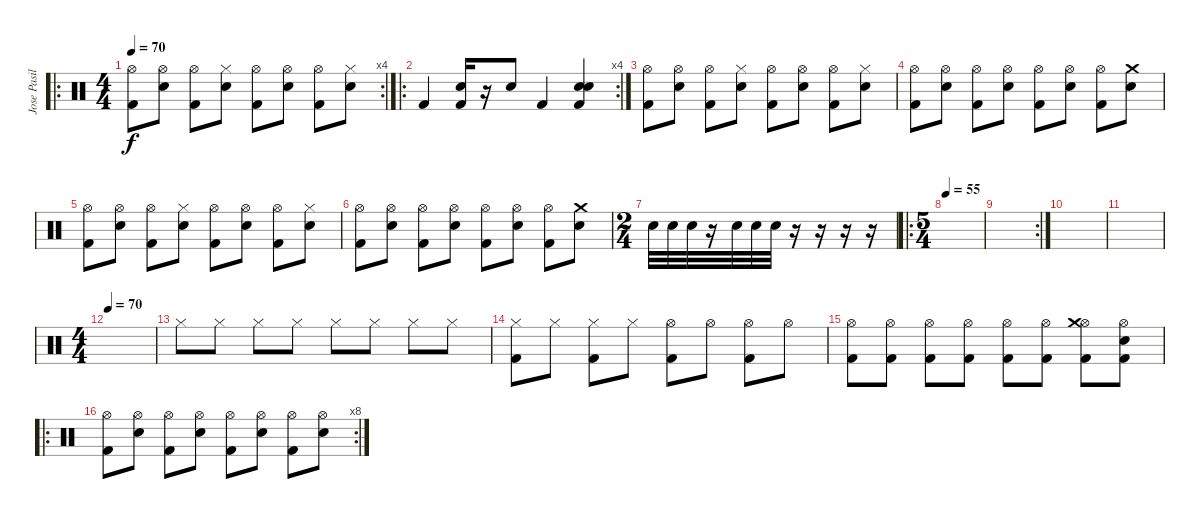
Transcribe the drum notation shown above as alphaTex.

\track ("Jose Pasillas" "Jose Pasil") {instrument percussion}
\staff {score}
\articulation defaults
\ro
\rc 4
\ts (4 4)
\tempo 70
\clef neutral
\ks c
("Hi-Hat (open)" "Kick (hit) 2").8{dy f} ("Hi-Hat (open)" "Snare (hit) 2").8 ("Hi-Hat (open)" "Kick (hit) 2").8 ("Hi-Hat (closed)" "Snare (hit) 2").8 ("Hi-Hat (open)" "Kick (hit) 2").8 ("Hi-Hat (open)" "Snare (hit) 2").8 ("Hi-Hat (open)" "Kick (hit) 2").8 ("Hi-Hat (closed)" "Snare (hit) 2").8 |
\ro
\rc 4 "Kick (hit) 2".4
("Snare (hit) 2" "Kick (hit) 2").16 r.16 "Snare (hit)".8 "Kick (hit) 2".4 ("Snare (hit) 2" "Snare (hit)" "Kick (hit) 2").4 |
("Hi-Hat (open)" "Kick (hit) 2").8 ("Hi-Hat (open)" "Snare (hit) 2").8 ("Hi-Hat (open)" "Kick (hit) 2").8 ("Hi-Hat (closed)" "Snare (hit) 2").8 ("Hi-Hat (open)" "Kick (hit) 2").8 ("Hi-Hat (open)" "Snare (hit) 2").8 ("Hi-Hat (open)" "Kick (hit) 2").8 ("Hi-Hat (closed)" "Snare (hit) 2").8 |
("Hi-Hat (open)" "Kick (hit) 2").8 ("Hi-Hat (open)" "Snare (hit) 2").8 ("Hi-Hat (open)" "Kick (hit) 2").8 ("Hi-Hat (open)" "Snare (hit) 2").8 ("Hi-Hat (open)" "Kick (hit) 2").8 ("Hi-Hat (open)" "Snare (hit) 2").8 ("Hi-Hat (open)" "Kick (hit) 2").8 ("Crash medium (hit)" "Snare (hit) 2").8 |
("Hi-Hat (open)" "Kick (hit) 2").8 ("Hi-Hat (open)" "Snare (hit) 2").8 ("Hi-Hat (open)" "Kick (hit) 2").8 ("Hi-Hat (closed)" "Snare (hit) 2").8 ("Hi-Hat (open)" "Kick (hit) 2").8 ("Hi-Hat (open)" "Snare (hit) 2").8 ("Hi-Hat (open)" "Kick (hit) 2").8 ("Hi-Hat (closed)" "Snare (hit) 2").8 |
("Hi-Hat (open)" "Kick (hit) 2").8 ("Hi-Hat (open)" "Snare (hit) 2").8 ("Hi-Hat (open)" "Kick (hit) 2").8 ("Hi-Hat (open)" "Snare (hit) 2").8 ("Hi-Hat (open)" "Kick (hit) 2").8 ("Hi-Hat (open)" "Snare (hit) 2").8 ("Hi-Hat (open)" "Kick (hit) 2").8 ("Crash medium (hit)" "Snare (hit) 2").8 |
\ts (2 4)
"Snare (hit) 2".32 "Snare (hit) 2".32 "Snare (hit) 2".32 r.16 "Snare (hit) 2".32 "Snare (hit) 2".32 "Snare (hit) 2".32 r.16 r.16 r.16 r.16 |
\ro
\ts (5 4)
\tempo 55
|
\rc 2
|
|
|
\ts (4 4)
\tempo 70
|
"Hi-Hat (closed)".8 "Hi-Hat (closed)".8 "Hi-Hat (closed)".8 "Hi-Hat (closed)".8 "Hi-Hat (closed)".8 "Hi-Hat (closed)".8 "Hi-Hat (closed)".8 "Hi-Hat (closed)".8 |
("Hi-Hat (closed)" "Kick (hit) 2").8 "Hi-Hat (closed)".8 ("Hi-Hat (closed)" "Kick (hit) 2").8 "Hi-Hat (closed)".8 ("Hi-Hat (open)" "Kick (hit) 2").8 "Hi-Hat (open)".8 ("Hi-Hat (open)" "Kick (hit) 2").8 "Hi-Hat (open)".8 |
("Hi-Hat (open)" "Kick (hit) 2").8 ("Hi-Hat (open)" "Kick (hit) 2").8 ("Hi-Hat (open)" "Kick (hit) 2").8 ("Hi-Hat (open)" "Kick (hit) 2").8 ("Hi-Hat (open)" "Kick (hit) 2").8 ("Hi-Hat (open)" "Kick (hit) 2").8 ("Hi-Hat (open)" "Crash medium (hit)" "Kick (hit) 2").8 ("Hi-Hat (open)" "Snare (hit) 2" "Kick (hit) 2").8 |
\ro
\rc 8
("Hi-Hat (open)" "Kick (hit) 2").8 ("Hi-Hat (open)" "Snare (hit) 2").8 ("Hi-Hat (open)" "Kick (hit) 2").8 ("Hi-Hat (open)" "Snare (hit) 2").8 ("Hi-Hat (open)" "Kick (hit) 2").8 ("Hi-Hat (open)" "Snare (hit) 2").8 ("Hi-Hat (open)" "Kick (hit) 2").8 ("Hi-Hat (open)" "Snare (hit) 2").8
